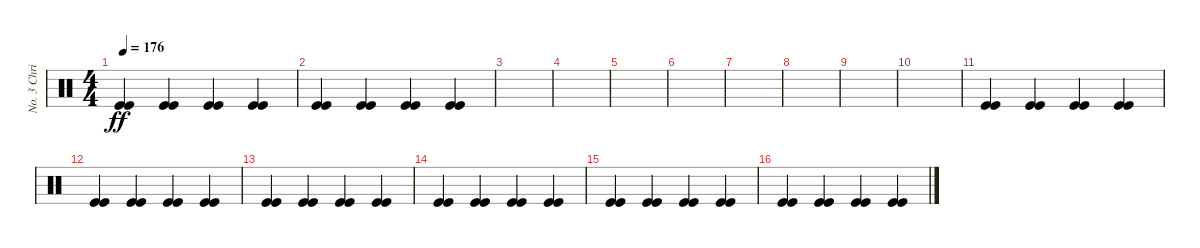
\track ("No. 3 Chris" "No. 3 Chri") {instrument percussion}
\staff {score}
\articulation defaults
\ts (4 4)
\tempo 176
\clef neutral
\ks c
("Kick (hit)" "Kick (hit)").4{dy ff} ("Kick (hit)" "Kick (hit)").4 ("Kick (hit)" "Kick (hit)").4 ("Kick (hit)" "Kick (hit)").4 |
("Kick (hit)" "Kick (hit)").4 ("Kick (hit)" "Kick (hit)").4 ("Kick (hit)" "Kick (hit)").4 ("Kick (hit)" "Kick (hit)").4 |
|
|
|
|
|
|
|
|
("Kick (hit)" "Kick (hit)").4 ("Kick (hit)" "Kick (hit)").4 ("Kick (hit)" "Kick (hit)").4 ("Kick (hit)" "Kick (hit)").4 |
("Kick (hit)" "Kick (hit)").4 ("Kick (hit)" "Kick (hit)").4 ("Kick (hit)" "Kick (hit)").4 ("Kick (hit)" "Kick (hit)").4 |
("Kick (hit)" "Kick (hit)").4 ("Kick (hit)" "Kick (hit)").4 ("Kick (hit)" "Kick (hit)").4 ("Kick (hit)" "Kick (hit)").4 |
("Kick (hit)" "Kick (hit)").4 ("Kick (hit)" "Kick (hit)").4 ("Kick (hit)" "Kick (hit)").4 ("Kick (hit)" "Kick (hit)").4 |
("Kick (hit)" "Kick (hit)").4 ("Kick (hit)" "Kick (hit)").4 ("Kick (hit)" "Kick (hit)").4 ("Kick (hit)" "Kick (hit)").4 |
("Kick (hit)" "Kick (hit)").4 ("Kick (hit)" "Kick (hit)").4 ("Kick (hit)" "Kick (hit)").4 ("Kick (hit)" "Kick (hit)").4
